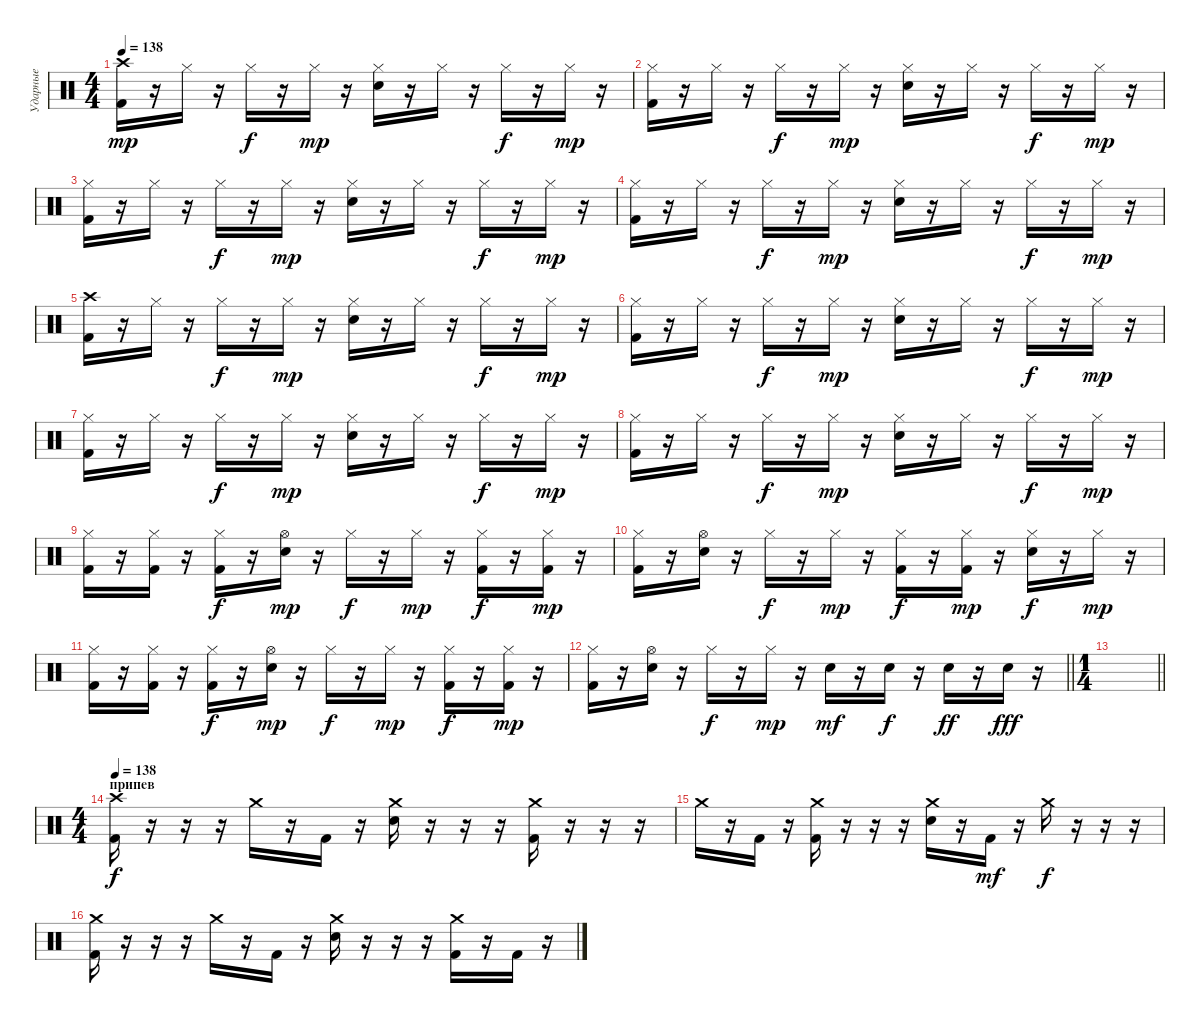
\track ("Ударные" "Ударные") {instrument percussion}
\staff {score}
\articulation defaults
\ts (4 4)
\tempo 138
\clef neutral
\ks c
("Crash high (hit)" "Kick (hit) 2").16{dy mp} r.16 "Hi-Hat (closed)".16 r.16 "Hi-Hat (closed)".16{dy f} r.16 "Hi-Hat (closed)".16{dy mp} r.16 ("Hi-Hat (closed)" "Electric Snare (hit)").16 r.16 "Hi-Hat (closed)".16 r.16 "Hi-Hat (closed)".16{dy f} r.16 "Hi-Hat (closed)".16{dy mp} r.16 |
("Hi-Hat (closed)" "Kick (hit) 2").16 r.16 "Hi-Hat (closed)".16 r.16 "Hi-Hat (closed)".16{dy f} r.16 "Hi-Hat (closed)".16{dy mp} r.16 ("Hi-Hat (closed)" "Electric Snare (hit)").16 r.16 "Hi-Hat (closed)".16 r.16 "Hi-Hat (closed)".16{dy f} r.16 "Hi-Hat (closed)".16{dy mp} r.16 |
("Hi-Hat (closed)" "Kick (hit) 2").16 r.16 "Hi-Hat (closed)".16 r.16 "Hi-Hat (closed)".16{dy f} r.16 "Hi-Hat (closed)".16{dy mp} r.16 ("Hi-Hat (closed)" "Electric Snare (hit)").16 r.16 "Hi-Hat (closed)".16 r.16 "Hi-Hat (closed)".16{dy f} r.16 "Hi-Hat (closed)".16{dy mp} r.16 |
("Hi-Hat (closed)" "Kick (hit) 2").16 r.16 "Hi-Hat (closed)".16 r.16 "Hi-Hat (closed)".16{dy f} r.16 "Hi-Hat (closed)".16{dy mp} r.16 ("Hi-Hat (closed)" "Electric Snare (hit)").16 r.16 "Hi-Hat (closed)".16 r.16 "Hi-Hat (closed)".16{dy f} r.16 "Hi-Hat (closed)".16{dy mp} r.16 |
("Crash high (hit)" "Kick (hit) 2").16 r.16 "Hi-Hat (closed)".16 r.16 "Hi-Hat (closed)".16{dy f} r.16 "Hi-Hat (closed)".16{dy mp} r.16 ("Hi-Hat (closed)" "Electric Snare (hit)").16 r.16 "Hi-Hat (closed)".16 r.16 "Hi-Hat (closed)".16{dy f} r.16 "Hi-Hat (closed)".16{dy mp} r.16 |
("Hi-Hat (closed)" "Kick (hit) 2").16 r.16 "Hi-Hat (closed)".16 r.16 "Hi-Hat (closed)".16{dy f} r.16 "Hi-Hat (closed)".16{dy mp} r.16 ("Hi-Hat (closed)" "Electric Snare (hit)").16 r.16 "Hi-Hat (closed)".16 r.16 "Hi-Hat (closed)".16{dy f} r.16 "Hi-Hat (closed)".16{dy mp} r.16 |
("Hi-Hat (closed)" "Kick (hit) 2").16 r.16 "Hi-Hat (closed)".16 r.16 "Hi-Hat (closed)".16{dy f} r.16 "Hi-Hat (closed)".16{dy mp} r.16 ("Hi-Hat (closed)" "Electric Snare (hit)").16 r.16 "Hi-Hat (closed)".16 r.16 "Hi-Hat (closed)".16{dy f} r.16 "Hi-Hat (closed)".16{dy mp} r.16 |
("Hi-Hat (closed)" "Kick (hit) 2").16 r.16 "Hi-Hat (closed)".16 r.16 "Hi-Hat (closed)".16{dy f} r.16 "Hi-Hat (closed)".16{dy mp} r.16 ("Hi-Hat (closed)" "Electric Snare (hit)").16 r.16 "Hi-Hat (closed)".16 r.16 "Hi-Hat (closed)".16{dy f} r.16 "Hi-Hat (closed)".16{dy mp} r.16 |
("Hi-Hat (closed)" "Kick (hit) 2").16 r.16 ("Hi-Hat (closed)" "Kick (hit) 2").16 r.16 ("Hi-Hat (closed)" "Kick (hit) 2").16{dy f} r.16 ("Hi-Hat (open)" "Electric Snare (hit)").16{dy mp} r.16 "Hi-Hat (closed)".16{dy f} r.16 "Hi-Hat (closed)".16{dy mp} r.16 ("Hi-Hat (closed)" "Kick (hit) 2").16{dy f} r.16 ("Hi-Hat (closed)" "Kick (hit) 2").16{dy mp} r.16 |
("Hi-Hat (closed)" "Kick (hit) 2").16 r.16 ("Hi-Hat (open)" "Electric Snare (hit)").16 r.16 "Hi-Hat (closed)".16{dy f} r.16 "Hi-Hat (closed)".16{dy mp} r.16 ("Hi-Hat (closed)" "Kick (hit) 2").16{dy f} r.16 ("Hi-Hat (closed)" "Kick (hit) 2").16{dy mp} r.16 ("Hi-Hat (closed)" "Electric Snare (hit)").16{dy f} r.16 "Hi-Hat (closed)".16{dy mp} r.16 |
("Hi-Hat (closed)" "Kick (hit) 2").16 r.16 ("Hi-Hat (closed)" "Kick (hit) 2").16 r.16 ("Hi-Hat (closed)" "Kick (hit) 2").16{dy f} r.16 ("Hi-Hat (open)" "Electric Snare (hit)").16{dy mp} r.16 "Hi-Hat (closed)".16{dy f} r.16 "Hi-Hat (closed)".16{dy mp} r.16 ("Hi-Hat (closed)" "Kick (hit) 2").16{dy f} r.16 ("Hi-Hat (closed)" "Kick (hit) 2").16{dy mp} r.16 |
\barLineRight lightlight
("Hi-Hat (closed)" "Kick (hit) 2").16 r.16 ("Hi-Hat (open)" "Electric Snare (hit)").16 r.16 "Hi-Hat (closed)".16{dy f} r.16 "Hi-Hat (closed)".16{dy mp} r.16 "Electric Snare (hit)".16{dy mf} r.16 "Electric Snare (hit)".16{dy f} r.16 "Electric Snare (hit)".16{dy ff} r.16 "Electric Snare (hit)".16{dy fff} r.16 |
\ts (1 4)
\barLineRight lightlight
|
\ts (4 4)
\section ("" "припев")
\tempo 138
("Crash high (hit)" "Kick (hit) 2").16{dy f} r.16 r.16 r.16 "Crash medium (hit)".16 r.16 "Kick (hit) 2".16 r.16 ("Crash medium (hit)" "Electric Snare (hit)").16 r.16 r.16 r.16 ("Crash medium (hit)" "Kick (hit) 2").16 r.16 r.16 r.16 |
"Crash medium (hit)".16 r.16 "Kick (hit) 2".16 r.16 ("Crash medium (hit)" "Kick (hit) 2").16 r.16 r.16 r.16 ("Crash medium (hit)" "Electric Snare (hit)").16 r.16 "Kick (hit) 2".16{dy mf} r.16 "Crash medium (hit)".16{dy f} r.16 r.16 r.16 |
("Crash medium (hit)" "Kick (hit) 2").16 r.16 r.16 r.16 "Crash medium (hit)".16 r.16 "Kick (hit) 2".16 r.16 ("Crash medium (hit)" "Electric Snare (hit)").16 r.16 r.16 r.16 ("Crash medium (hit)" "Kick (hit) 2").16 r.16 "Kick (hit) 2".16 r.16
